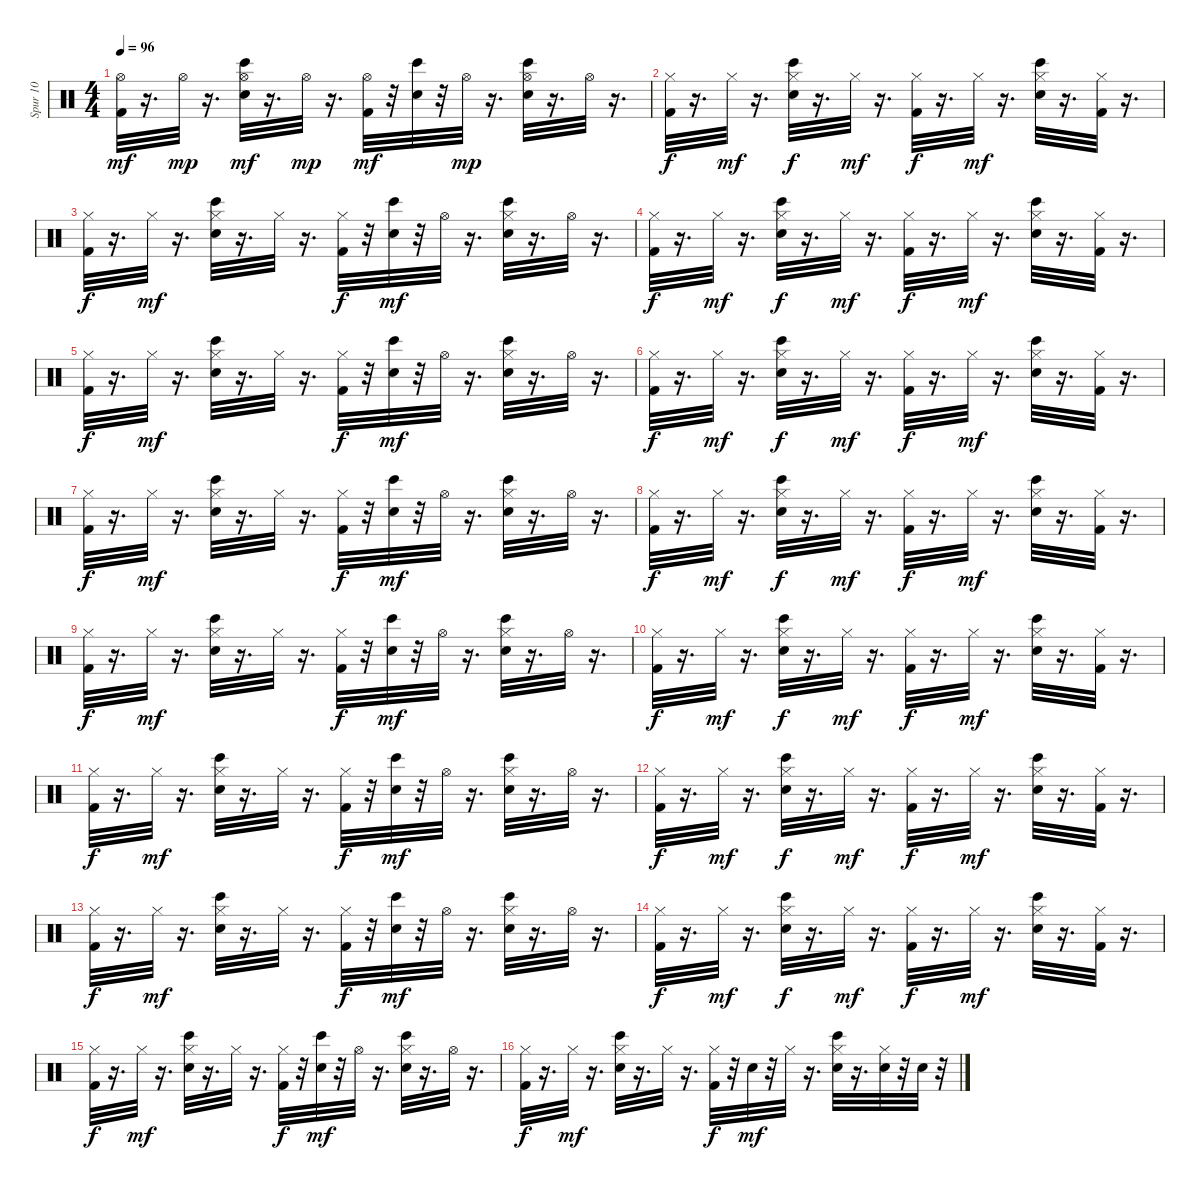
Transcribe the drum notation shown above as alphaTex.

\track ("Spur 10" "Spur 10") {instrument percussion}
\staff {score}
\articulation defaults
\ts (4 4)
\tempo 96
\clef neutral
\ks c
("Hi-Hat (open)" "Kick (hit) 2").32{dy mf} r.16{d} "Hi-Hat (open)".32{dy mp} r.16{d} ("Hi-Hat (open)" "Snare (hit) 2" "Bongo High (hit)").32{dy mf} r.16{d} "Hi-Hat (open)".32{dy mp} r.16{d} ("Hi-Hat (open)" "Kick (hit) 2").32{dy mf} r.32 ("Snare (hit) 2" "Bongo High (hit)").32 r.32 "Hi-Hat (open)".32{dy mp} r.16{d} ("Hi-Hat (open)" "Snare (hit) 2" "Bongo High (hit)").32 r.16{d} "Hi-Hat (open)".32 r.16{d} |
("Hi-Hat (closed)" "Kick (hit) 2").32{dy f} r.16{d} "Hi-Hat (closed)".32{dy mf} r.16{d} ("Hi-Hat (closed)" "Snare (hit) 2" "Bongo High (hit)").32{dy f} r.16{d} "Hi-Hat (closed)".32{dy mf} r.16{d} ("Hi-Hat (closed)" "Kick (hit) 2").32{dy f} r.16{d} "Hi-Hat (closed)".32{dy mf} r.16{d} ("Hi-Hat (closed)" "Snare (hit) 2" "Bongo High (hit)").32 r.16{d} ("Hi-Hat (closed)" "Kick (hit) 2").32 r.16{d} |
("Hi-Hat (closed)" "Kick (hit) 2").32{dy f} r.16{d} "Hi-Hat (closed)".32{dy mf} r.16{d} ("Hi-Hat (closed)" "Snare (hit) 2" "Bongo High (hit)").32 r.16{d} "Hi-Hat (closed)".32 r.16{d} ("Hi-Hat (closed)" "Kick (hit) 2").32{dy f} r.32 ("Snare (hit) 2" "Bongo High (hit)").32{dy mf} r.32 "Hi-Hat (open)".32 r.16{d} ("Hi-Hat (closed)" "Snare (hit) 2" "Bongo High (hit)").32 r.16{d} "Hi-Hat (open)".32 r.16{d} |
("Hi-Hat (closed)" "Kick (hit) 2").32{dy f} r.16{d} "Hi-Hat (closed)".32{dy mf} r.16{d} ("Hi-Hat (closed)" "Snare (hit) 2" "Bongo High (hit)").32{dy f} r.16{d} "Hi-Hat (closed)".32{dy mf} r.16{d} ("Hi-Hat (closed)" "Kick (hit) 2").32{dy f} r.16{d} "Hi-Hat (closed)".32{dy mf} r.16{d} ("Hi-Hat (closed)" "Snare (hit) 2" "Bongo High (hit)").32 r.16{d} ("Hi-Hat (closed)" "Kick (hit) 2").32 r.16{d} |
("Hi-Hat (closed)" "Kick (hit) 2").32{dy f} r.16{d} "Hi-Hat (closed)".32{dy mf} r.16{d} ("Hi-Hat (closed)" "Snare (hit) 2" "Bongo High (hit)").32 r.16{d} "Hi-Hat (closed)".32 r.16{d} ("Hi-Hat (closed)" "Kick (hit) 2").32{dy f} r.32 ("Snare (hit) 2" "Bongo High (hit)").32{dy mf} r.32 "Hi-Hat (open)".32 r.16{d} ("Hi-Hat (closed)" "Snare (hit) 2" "Bongo High (hit)").32 r.16{d} "Hi-Hat (open)".32 r.16{d} |
("Hi-Hat (closed)" "Kick (hit) 2").32{dy f} r.16{d} "Hi-Hat (closed)".32{dy mf} r.16{d} ("Hi-Hat (closed)" "Snare (hit) 2" "Bongo High (hit)").32{dy f} r.16{d} "Hi-Hat (closed)".32{dy mf} r.16{d} ("Hi-Hat (closed)" "Kick (hit) 2").32{dy f} r.16{d} "Hi-Hat (closed)".32{dy mf} r.16{d} ("Hi-Hat (closed)" "Snare (hit) 2" "Bongo High (hit)").32 r.16{d} ("Hi-Hat (closed)" "Kick (hit) 2").32 r.16{d} |
("Hi-Hat (closed)" "Kick (hit) 2").32{dy f} r.16{d} "Hi-Hat (closed)".32{dy mf} r.16{d} ("Hi-Hat (closed)" "Snare (hit) 2" "Bongo High (hit)").32 r.16{d} "Hi-Hat (closed)".32 r.16{d} ("Hi-Hat (closed)" "Kick (hit) 2").32{dy f} r.32 ("Snare (hit) 2" "Bongo High (hit)").32{dy mf} r.32 "Hi-Hat (open)".32 r.16{d} ("Hi-Hat (closed)" "Snare (hit) 2" "Bongo High (hit)").32 r.16{d} "Hi-Hat (open)".32 r.16{d} |
("Hi-Hat (closed)" "Kick (hit) 2").32{dy f} r.16{d} "Hi-Hat (closed)".32{dy mf} r.16{d} ("Hi-Hat (closed)" "Snare (hit) 2" "Bongo High (hit)").32{dy f} r.16{d} "Hi-Hat (closed)".32{dy mf} r.16{d} ("Hi-Hat (closed)" "Kick (hit) 2").32{dy f} r.16{d} "Hi-Hat (closed)".32{dy mf} r.16{d} ("Hi-Hat (closed)" "Snare (hit) 2" "Bongo High (hit)").32 r.16{d} ("Hi-Hat (closed)" "Kick (hit) 2").32 r.16{d} |
("Hi-Hat (closed)" "Kick (hit) 2").32{dy f} r.16{d} "Hi-Hat (closed)".32{dy mf} r.16{d} ("Hi-Hat (closed)" "Snare (hit) 2" "Bongo High (hit)").32 r.16{d} "Hi-Hat (closed)".32 r.16{d} ("Hi-Hat (closed)" "Kick (hit) 2").32{dy f} r.32 ("Snare (hit) 2" "Bongo High (hit)").32{dy mf} r.32 "Hi-Hat (open)".32 r.16{d} ("Hi-Hat (closed)" "Snare (hit) 2" "Bongo High (hit)").32 r.16{d} "Hi-Hat (open)".32 r.16{d} |
("Hi-Hat (closed)" "Kick (hit) 2").32{dy f} r.16{d} "Hi-Hat (closed)".32{dy mf} r.16{d} ("Hi-Hat (closed)" "Snare (hit) 2" "Bongo High (hit)").32{dy f} r.16{d} "Hi-Hat (closed)".32{dy mf} r.16{d} ("Hi-Hat (closed)" "Kick (hit) 2").32{dy f} r.16{d} "Hi-Hat (closed)".32{dy mf} r.16{d} ("Hi-Hat (closed)" "Snare (hit) 2" "Bongo High (hit)").32 r.16{d} ("Hi-Hat (closed)" "Kick (hit) 2").32 r.16{d} |
("Hi-Hat (closed)" "Kick (hit) 2").32{dy f} r.16{d} "Hi-Hat (closed)".32{dy mf} r.16{d} ("Hi-Hat (closed)" "Snare (hit) 2" "Bongo High (hit)").32 r.16{d} "Hi-Hat (closed)".32 r.16{d} ("Hi-Hat (closed)" "Kick (hit) 2").32{dy f} r.32 ("Snare (hit) 2" "Bongo High (hit)").32{dy mf} r.32 "Hi-Hat (open)".32 r.16{d} ("Hi-Hat (closed)" "Snare (hit) 2" "Bongo High (hit)").32 r.16{d} "Hi-Hat (open)".32 r.16{d} |
("Hi-Hat (closed)" "Kick (hit) 2").32{dy f} r.16{d} "Hi-Hat (closed)".32{dy mf} r.16{d} ("Hi-Hat (closed)" "Snare (hit) 2" "Bongo High (hit)").32{dy f} r.16{d} "Hi-Hat (closed)".32{dy mf} r.16{d} ("Hi-Hat (closed)" "Kick (hit) 2").32{dy f} r.16{d} "Hi-Hat (closed)".32{dy mf} r.16{d} ("Hi-Hat (closed)" "Snare (hit) 2" "Bongo High (hit)").32 r.16{d} ("Hi-Hat (closed)" "Kick (hit) 2").32 r.16{d} |
("Hi-Hat (closed)" "Kick (hit) 2").32{dy f} r.16{d} "Hi-Hat (closed)".32{dy mf} r.16{d} ("Hi-Hat (closed)" "Snare (hit) 2" "Bongo High (hit)").32 r.16{d} "Hi-Hat (closed)".32 r.16{d} ("Hi-Hat (closed)" "Kick (hit) 2").32{dy f} r.32 ("Snare (hit) 2" "Bongo High (hit)").32{dy mf} r.32 "Hi-Hat (open)".32 r.16{d} ("Hi-Hat (closed)" "Snare (hit) 2" "Bongo High (hit)").32 r.16{d} "Hi-Hat (open)".32 r.16{d} |
("Hi-Hat (closed)" "Kick (hit) 2").32{dy f} r.16{d} "Hi-Hat (closed)".32{dy mf} r.16{d} ("Hi-Hat (closed)" "Snare (hit) 2" "Bongo High (hit)").32{dy f} r.16{d} "Hi-Hat (closed)".32{dy mf} r.16{d} ("Hi-Hat (closed)" "Kick (hit) 2").32{dy f} r.16{d} "Hi-Hat (closed)".32{dy mf} r.16{d} ("Hi-Hat (closed)" "Snare (hit) 2" "Bongo High (hit)").32 r.16{d} ("Hi-Hat (closed)" "Kick (hit) 2").32 r.16{d} |
("Hi-Hat (closed)" "Kick (hit) 2").32{dy f} r.16{d} "Hi-Hat (closed)".32{dy mf} r.16{d} ("Hi-Hat (closed)" "Snare (hit) 2" "Bongo High (hit)").32 r.16{d} "Hi-Hat (closed)".32 r.16{d} ("Hi-Hat (closed)" "Kick (hit) 2").32{dy f} r.32 ("Snare (hit) 2" "Bongo High (hit)").32{dy mf} r.32 "Hi-Hat (open)".32 r.16{d} ("Hi-Hat (closed)" "Snare (hit) 2" "Bongo High (hit)").32 r.16{d} "Hi-Hat (open)".32 r.16{d} |
("Hi-Hat (closed)" "Kick (hit) 2").32{dy f} r.16{d} "Hi-Hat (closed)".32{dy mf} r.16{d} ("Hi-Hat (closed)" "Snare (hit) 2" "Bongo High (hit)").32 r.16{d} "Hi-Hat (closed)".32 r.16{d} ("Hi-Hat (closed)" "Kick (hit) 2").32{dy f} r.32 "Snare (hit) 2".32{dy mf} r.32 "Hi-Hat (closed)".32 r.16{d} ("Hi-Hat (closed)" "Snare (hit) 2" "Bongo High (hit)").32 r.16{d} ("Hi-Hat (closed)" "Snare (hit) 2").32 r.32 "Snare (hit) 2".32 r.32
